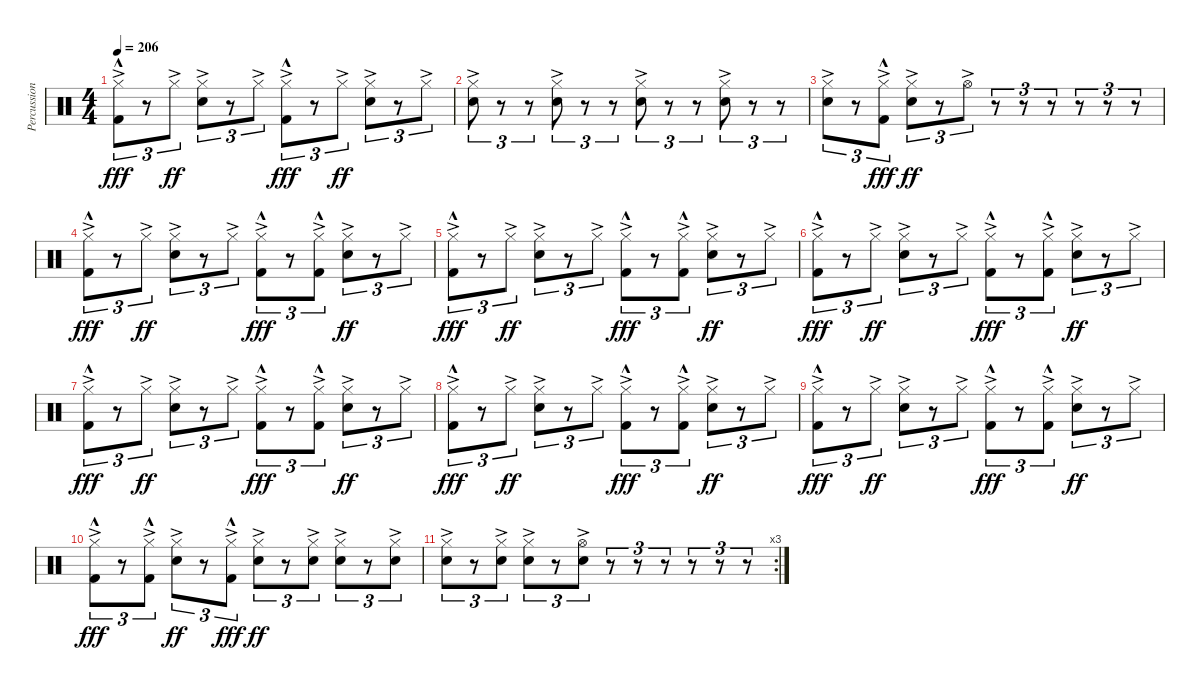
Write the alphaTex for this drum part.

\track ("Percussion" "Percussion") {instrument percussion}
\staff {score}
\articulation defaults
\ts (4 4)
\tempo 206
\clef neutral
\ks c
("Hi-Hat (closed)"{ac} "Kick (hit) 2"{hac}).8{tu (3 2) dy fff} r.8{tu (3 2)} "Hi-Hat (closed)"{ac}.8{tu (3 2) dy ff} ("Hi-Hat (closed)"{ac} "Snare (hit) 2"{ac}).8{tu (3 2)} r.8{tu (3 2)} "Hi-Hat (closed)"{ac}.8{tu (3 2)} ("Hi-Hat (closed)"{ac} "Kick (hit) 2"{hac}).8{tu (3 2) dy fff} r.8{tu (3 2)} "Hi-Hat (closed)"{ac}.8{tu (3 2) dy ff} ("Hi-Hat (closed)"{ac} "Snare (hit) 2"{ac}).8{tu (3 2)} r.8{tu (3 2)} "Hi-Hat (closed)"{ac}.8{tu (3 2)} |
("Hi-Hat (closed)"{ac} "Snare (hit) 2"{ac}).8{tu (3 2)} r.8{tu (3 2)} r.8{tu (3 2)} ("Hi-Hat (closed)"{ac} "Snare (hit) 2"{ac}).8{tu (3 2)} r.8{tu (3 2)} r.8{tu (3 2)} ("Hi-Hat (closed)"{ac} "Snare (hit) 2"{ac}).8{tu (3 2)} r.8{tu (3 2)} r.8{tu (3 2)} ("Hi-Hat (closed)"{ac} "Snare (hit) 2"{ac}).8{tu (3 2)} r.8{tu (3 2)} r.8{tu (3 2)} |
("Hi-Hat (closed)"{ac} "Snare (hit) 2"{ac}).8{tu (3 2)} r.8{tu (3 2)} ("Hi-Hat (closed)"{ac} "Kick (hit) 2"{hac}).8{tu (3 2) dy fff} ("Hi-Hat (closed)"{ac} "Snare (hit) 2"{ac}).8{tu (3 2) dy ff} r.8{tu (3 2)} "Hi-Hat (open)"{ac}.8{tu (3 2)} r.8{tu (3 2)} r.8{tu (3 2)} r.8{tu (3 2)} r.8{tu (3 2)} r.8{tu (3 2)} r.8{tu (3 2)} |
("Hi-Hat (closed)"{ac} "Kick (hit) 2"{hac}).8{tu (3 2) dy fff} r.8{tu (3 2)} "Hi-Hat (closed)"{ac}.8{tu (3 2) dy ff} ("Hi-Hat (closed)"{ac} "Snare (hit) 2"{ac}).8{tu (3 2)} r.8{tu (3 2)} "Hi-Hat (closed)"{ac}.8{tu (3 2)} ("Hi-Hat (closed)"{ac} "Kick (hit) 2"{hac}).8{tu (3 2) dy fff} r.8{tu (3 2)} ("Hi-Hat (closed)"{ac} "Kick (hit) 2"{hac}).8{tu (3 2)} ("Hi-Hat (closed)"{ac} "Snare (hit) 2"{ac}).8{tu (3 2) dy ff} r.8{tu (3 2)} "Hi-Hat (closed)"{ac}.8{tu (3 2)} |
("Hi-Hat (closed)"{ac} "Kick (hit) 2"{hac}).8{tu (3 2) dy fff} r.8{tu (3 2)} "Hi-Hat (closed)"{ac}.8{tu (3 2) dy ff} ("Hi-Hat (closed)"{ac} "Snare (hit) 2"{ac}).8{tu (3 2)} r.8{tu (3 2)} "Hi-Hat (closed)"{ac}.8{tu (3 2)} ("Hi-Hat (closed)"{ac} "Kick (hit) 2"{hac}).8{tu (3 2) dy fff} r.8{tu (3 2)} ("Hi-Hat (closed)"{ac} "Kick (hit) 2"{hac}).8{tu (3 2)} ("Hi-Hat (closed)"{ac} "Snare (hit) 2"{ac}).8{tu (3 2) dy ff} r.8{tu (3 2)} "Hi-Hat (closed)"{ac}.8{tu (3 2)} |
("Hi-Hat (closed)"{ac} "Kick (hit) 2"{hac}).8{tu (3 2) dy fff} r.8{tu (3 2)} "Hi-Hat (closed)"{ac}.8{tu (3 2) dy ff} ("Hi-Hat (closed)"{ac} "Snare (hit) 2"{ac}).8{tu (3 2)} r.8{tu (3 2)} "Hi-Hat (closed)"{ac}.8{tu (3 2)} ("Hi-Hat (closed)"{ac} "Kick (hit) 2"{hac}).8{tu (3 2) dy fff} r.8{tu (3 2)} ("Hi-Hat (closed)"{ac} "Kick (hit) 2"{hac}).8{tu (3 2)} ("Hi-Hat (closed)"{ac} "Snare (hit) 2"{ac}).8{tu (3 2) dy ff} r.8{tu (3 2)} "Hi-Hat (closed)"{ac}.8{tu (3 2)} |
("Hi-Hat (closed)"{ac} "Kick (hit) 2"{hac}).8{tu (3 2) dy fff} r.8{tu (3 2)} "Hi-Hat (closed)"{ac}.8{tu (3 2) dy ff} ("Hi-Hat (closed)"{ac} "Snare (hit) 2"{ac}).8{tu (3 2)} r.8{tu (3 2)} "Hi-Hat (closed)"{ac}.8{tu (3 2)} ("Hi-Hat (closed)"{ac} "Kick (hit) 2"{hac}).8{tu (3 2) dy fff} r.8{tu (3 2)} ("Hi-Hat (closed)"{ac} "Kick (hit) 2"{hac}).8{tu (3 2)} ("Hi-Hat (closed)"{ac} "Snare (hit) 2"{ac}).8{tu (3 2) dy ff} r.8{tu (3 2)} "Hi-Hat (closed)"{ac}.8{tu (3 2)} |
("Hi-Hat (closed)"{ac} "Kick (hit) 2"{hac}).8{tu (3 2) dy fff} r.8{tu (3 2)} "Hi-Hat (closed)"{ac}.8{tu (3 2) dy ff} ("Hi-Hat (closed)"{ac} "Snare (hit) 2"{ac}).8{tu (3 2)} r.8{tu (3 2)} "Hi-Hat (closed)"{ac}.8{tu (3 2)} ("Hi-Hat (closed)"{ac} "Kick (hit) 2"{hac}).8{tu (3 2) dy fff} r.8{tu (3 2)} ("Hi-Hat (closed)"{ac} "Kick (hit) 2"{hac}).8{tu (3 2)} ("Hi-Hat (closed)"{ac} "Snare (hit) 2"{ac}).8{tu (3 2) dy ff} r.8{tu (3 2)} "Hi-Hat (closed)"{ac}.8{tu (3 2)} |
("Hi-Hat (closed)"{ac} "Kick (hit) 2"{hac}).8{tu (3 2) dy fff} r.8{tu (3 2)} "Hi-Hat (closed)"{ac}.8{tu (3 2) dy ff} ("Hi-Hat (closed)"{ac} "Snare (hit) 2"{ac}).8{tu (3 2)} r.8{tu (3 2)} "Hi-Hat (closed)"{ac}.8{tu (3 2)} ("Hi-Hat (closed)"{ac} "Kick (hit) 2"{hac}).8{tu (3 2) dy fff} r.8{tu (3 2)} ("Hi-Hat (closed)"{ac} "Kick (hit) 2"{hac}).8{tu (3 2)} ("Hi-Hat (closed)"{ac} "Snare (hit) 2"{ac}).8{tu (3 2) dy ff} r.8{tu (3 2)} "Hi-Hat (closed)"{ac}.8{tu (3 2)} |
("Hi-Hat (closed)"{ac} "Kick (hit) 2"{hac}).8{tu (3 2) dy fff} r.8{tu (3 2)} ("Hi-Hat (closed)"{ac} "Kick (hit) 2"{hac}).8{tu (3 2)} ("Hi-Hat (closed)"{ac} "Snare (hit) 2"{ac}).8{tu (3 2) dy ff} r.8{tu (3 2)} ("Hi-Hat (closed)"{ac} "Kick (hit) 2"{hac}).8{tu (3 2) dy fff} ("Hi-Hat (closed)"{ac} "Snare (hit) 2"{ac}).8{tu (3 2) dy ff} r.8{tu (3 2)} ("Hi-Hat (closed)"{ac} "Snare (hit) 2"{ac}).8{tu (3 2)} ("Hi-Hat (closed)"{ac} "Snare (hit) 2"{ac}).8{tu (3 2)} r.8{tu (3 2)} ("Hi-Hat (closed)"{ac} "Snare (hit) 2"{ac}).8{tu (3 2)} |
\rc 3
("Hi-Hat (closed)"{ac} "Snare (hit) 2"{ac}).8{tu (3 2)} r.8{tu (3 2)} ("Hi-Hat (closed)"{ac} "Snare (hit) 2"{ac}).8{tu (3 2)} ("Hi-Hat (closed)"{ac} "Snare (hit) 2"{ac}).8{tu (3 2)} r.8{tu (3 2)} ("Hi-Hat (open)"{ac} "Snare (hit) 2"{ac}).8{tu (3 2)} r.8{tu (3 2)} r.8{tu (3 2)} r.8{tu (3 2)} r.8{tu (3 2)} r.8{tu (3 2)} r.8{tu (3 2)}
